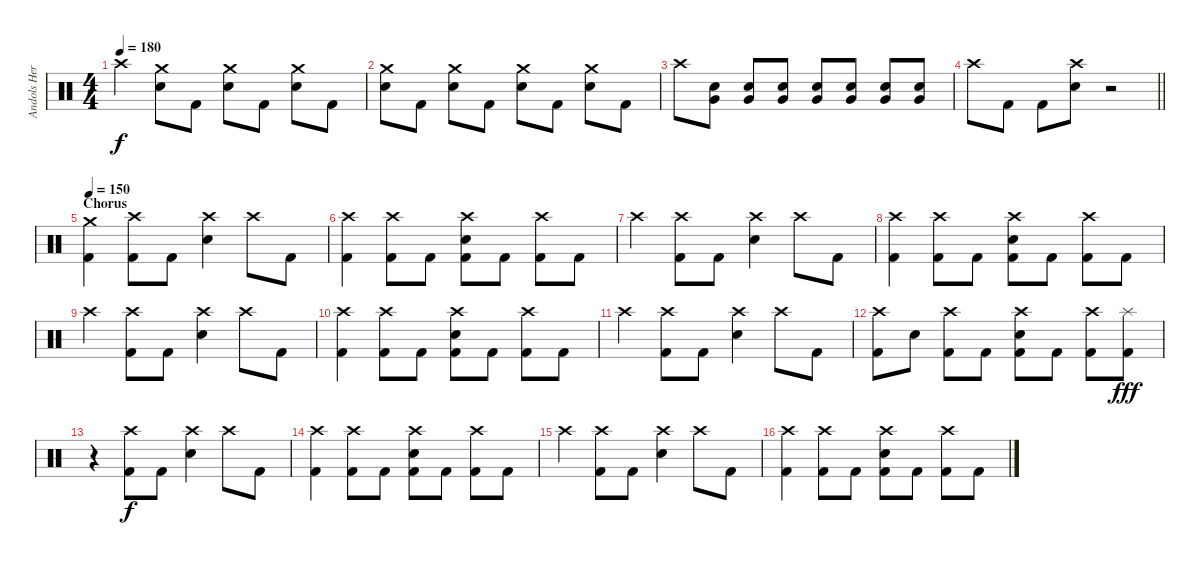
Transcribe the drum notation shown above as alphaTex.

\track ("Andols Herrick" "Andols Her") {instrument percussion}
\staff {score}
\articulation defaults
\ts (4 4)
\tempo 180
\clef neutral
\ks c "Crash high (hit)".4{dy f}
("Crash medium (hit)" "Snare (hit) 2").8 "Kick (hit) 2".8 ("Crash medium (hit)" "Snare (hit) 2").8 "Kick (hit) 2".8 ("Crash medium (hit)" "Snare (hit) 2").8 "Kick (hit) 2".8 |
("Crash medium (hit)" "Snare (hit) 2").8 "Kick (hit) 2".8 ("Crash medium (hit)" "Snare (hit) 2").8 "Kick (hit) 2".8 ("Crash medium (hit)" "Snare (hit) 2").8 "Kick (hit) 2".8 ("Crash medium (hit)" "Snare (hit) 2").8 "Kick (hit) 2".8 |
"Crash high (hit)".8 ("Electric Snare (hit)" "Very Low Tom (hit)").8 ("Electric Snare (hit)" "Very Low Tom (hit)").8 ("Electric Snare (hit)" "Very Low Tom (hit)").8 ("Electric Snare (hit)" "Very Low Tom (hit)").8 ("Electric Snare (hit)" "Very Low Tom (hit)").8 ("Electric Snare (hit)" "Very Low Tom (hit)").8 ("Electric Snare (hit)" "Very Low Tom (hit)").8 |
\barLineRight lightlight "Crash high (hit)".8 "Kick (hit) 2".8 "Kick (hit) 2".8
("Crash high (hit)" "Electric Snare (hit)").8 r.2 |
\section ("" "Chorus")
\tempo 150
("Crash medium (hit)" "Kick (hit) 2").4 ("Crash high (hit)" "Kick (hit) 2").8 "Kick (hit) 2".8 ("Crash high (hit)" "Electric Snare (hit)").4 "Crash high (hit)".8 "Kick (hit) 2".8 |
("Crash high (hit)" "Kick (hit) 2").4 ("Crash high (hit)" "Kick (hit) 2").8 "Kick (hit) 2".8 ("Crash high (hit)" "Electric Snare (hit)" "Kick (hit) 2").8 "Kick (hit) 2".8 ("Crash high (hit)" "Kick (hit) 2").8 "Kick (hit) 2".8 |
"Crash high (hit)".4 ("Crash high (hit)" "Kick (hit) 2").8 "Kick (hit) 2".8 ("Crash high (hit)" "Electric Snare (hit)").4 "Crash high (hit)".8 "Kick (hit) 2".8 |
("Crash high (hit)" "Kick (hit) 2").4 ("Crash high (hit)" "Kick (hit) 2").8 "Kick (hit) 2".8 ("Crash high (hit)" "Electric Snare (hit)" "Kick (hit) 2").8 "Kick (hit) 2".8 ("Crash high (hit)" "Kick (hit) 2").8 "Kick (hit) 2".8 |
"Crash high (hit)".4 ("Crash high (hit)" "Kick (hit) 2").8 "Kick (hit) 2".8 ("Crash high (hit)" "Electric Snare (hit)").4 "Crash high (hit)".8 "Kick (hit) 2".8 |
("Crash high (hit)" "Kick (hit) 2").4 ("Crash high (hit)" "Kick (hit) 2").8 "Kick (hit) 2".8 ("Crash high (hit)" "Electric Snare (hit)" "Kick (hit) 2").8 "Kick (hit) 2".8 ("Crash high (hit)" "Kick (hit) 2").8 "Kick (hit) 2".8 |
"Crash high (hit)".4 ("Crash high (hit)" "Kick (hit) 2").8 "Kick (hit) 2".8 ("Crash high (hit)" "Electric Snare (hit)").4 "Crash high (hit)".8 "Kick (hit) 2".8 |
("Crash high (hit)" "Kick (hit) 2").8 "Electric Snare (hit)".8 ("Crash high (hit)" "Kick (hit) 2").8 "Kick (hit) 2".8 ("Crash high (hit)" "Electric Snare (hit)" "Kick (hit) 2").8 "Kick (hit) 2".8 ("Crash high (hit)" "Kick (hit) 2").8 ("Splash (hit)" "Kick (hit) 2").8{dy fff} |
r.4 ("Crash high (hit)" "Kick (hit) 2").8{dy f} "Kick (hit) 2".8 ("Crash high (hit)" "Electric Snare (hit)").4 "Crash high (hit)".8 "Kick (hit) 2".8 |
("Crash high (hit)" "Kick (hit) 2").4 ("Crash high (hit)" "Kick (hit) 2").8 "Kick (hit) 2".8 ("Crash high (hit)" "Electric Snare (hit)" "Kick (hit) 2").8 "Kick (hit) 2".8 ("Crash high (hit)" "Kick (hit) 2").8 "Kick (hit) 2".8 |
"Crash high (hit)".4 ("Crash high (hit)" "Kick (hit) 2").8 "Kick (hit) 2".8 ("Crash high (hit)" "Electric Snare (hit)").4 "Crash high (hit)".8 "Kick (hit) 2".8 |
("Crash high (hit)" "Kick (hit) 2").4 ("Crash high (hit)" "Kick (hit) 2").8 "Kick (hit) 2".8 ("Crash high (hit)" "Electric Snare (hit)" "Kick (hit) 2").8 "Kick (hit) 2".8 ("Crash high (hit)" "Kick (hit) 2").8 "Kick (hit) 2".8
